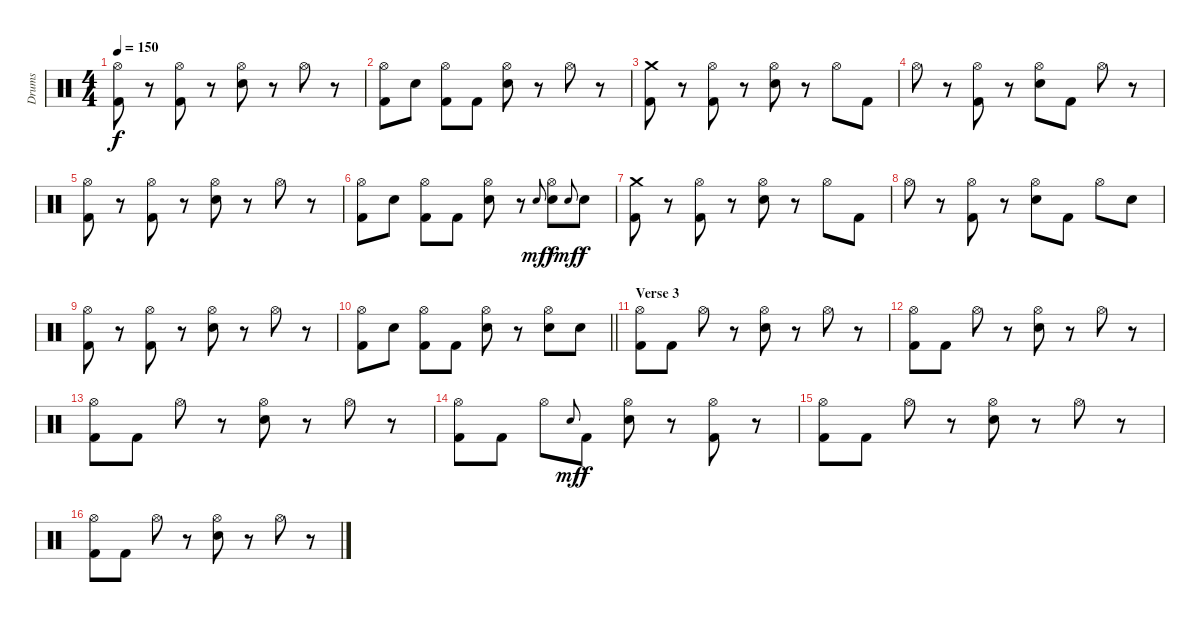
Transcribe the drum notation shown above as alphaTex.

\track ("Drums" "Drums") {instrument percussion}
\staff {score}
\articulation defaults
\ts (4 4)
\tempo 150
\clef neutral
\ks c
("Hi-Hat (open)" "Kick (hit) 2").8{dy f} r.8 ("Hi-Hat (open)" "Kick (hit) 2").8 r.8 ("Hi-Hat (open)" "Snare (hit) 2").8 r.8 "Hi-Hat (open)".8 r.8 |
("Hi-Hat (open)" "Kick (hit) 2").8 "Snare (hit) 2".8 ("Hi-Hat (open)" "Kick (hit) 2").8 "Kick (hit) 2".8 ("Hi-Hat (open)" "Snare (hit) 2").8 r.8 "Hi-Hat (open)".8 r.8 |
("Crash medium (hit)" "Kick (hit) 2").8 r.8 ("Hi-Hat (open)" "Kick (hit) 2").8 r.8 ("Hi-Hat (open)" "Snare (hit) 2").8 r.8 "Hi-Hat (open)".8 "Kick (hit) 2".8 |
"Hi-Hat (open)".8 r.8 ("Hi-Hat (open)" "Kick (hit) 2").8 r.8 ("Hi-Hat (open)" "Snare (hit) 2").8 "Kick (hit) 2".8 "Hi-Hat (open)".8 r.8 |
("Hi-Hat (open)" "Kick (hit) 2").8 r.8 ("Hi-Hat (open)" "Kick (hit) 2").8 r.8 ("Hi-Hat (open)" "Snare (hit) 2").8 r.8 "Hi-Hat (open)".8 r.8 |
("Hi-Hat (open)" "Kick (hit) 2").8 "Snare (hit) 2".8 ("Hi-Hat (open)" "Kick (hit) 2").8 "Kick (hit) 2".8 ("Hi-Hat (open)" "Snare (hit) 2").8 r.8 "Snare (hit)".8{gr onbeat dy mf} ("Hi-Hat (open)" "Snare (hit) 2").8{dy f} "Snare (hit)".8{gr onbeat dy mf} "Snare (hit) 2".8{dy f} |
("Crash medium (hit)" "Kick (hit) 2").8 r.8 ("Hi-Hat (open)" "Kick (hit) 2").8 r.8 ("Hi-Hat (open)" "Snare (hit) 2").8 r.8 "Hi-Hat (open)".8 "Kick (hit) 2".8 |
"Hi-Hat (open)".8 r.8 ("Hi-Hat (open)" "Kick (hit) 2").8 r.8 ("Hi-Hat (open)" "Snare (hit) 2").8 "Kick (hit) 2".8 "Hi-Hat (open)".8 "Snare (hit) 2".8 |
("Hi-Hat (open)" "Kick (hit) 2").8 r.8 ("Hi-Hat (open)" "Kick (hit) 2").8 r.8 ("Hi-Hat (open)" "Snare (hit) 2").8 r.8 "Hi-Hat (open)".8 r.8 |
\barLineRight lightlight
("Hi-Hat (open)" "Kick (hit) 2").8 "Snare (hit) 2".8 ("Hi-Hat (open)" "Kick (hit) 2").8 "Kick (hit) 2".8 ("Hi-Hat (open)" "Snare (hit) 2").8 r.8 ("Hi-Hat (open)" "Snare (hit) 2").8 "Snare (hit) 2".8 |
\section ("" "Verse 3")
("Hi-Hat (open)" "Kick (hit) 2").8 "Kick (hit) 2".8 "Hi-Hat (open)".8 r.8 ("Hi-Hat (open)" "Snare (hit) 2").8 r.8 "Hi-Hat (open)".8 r.8 |
("Hi-Hat (open)" "Kick (hit) 2").8 "Kick (hit) 2".8 "Hi-Hat (open)".8 r.8 ("Hi-Hat (open)" "Snare (hit) 2").8 r.8 "Hi-Hat (open)".8 r.8 |
("Hi-Hat (open)" "Kick (hit) 2").8 "Kick (hit) 2".8 "Hi-Hat (open)".8 r.8 ("Hi-Hat (open)" "Snare (hit) 2").8 r.8 "Hi-Hat (open)".8 r.8 |
("Hi-Hat (open)" "Kick (hit) 2").8 "Kick (hit) 2".8 "Hi-Hat (open)".8 "Snare (hit)".8{gr onbeat dy mf} "Kick (hit) 2".8{dy f} ("Hi-Hat (open)" "Snare (hit) 2").8 r.8 ("Hi-Hat (open)" "Kick (hit) 2").8 r.8 |
("Hi-Hat (open)" "Kick (hit) 2").8 "Kick (hit) 2".8 "Hi-Hat (open)".8 r.8 ("Hi-Hat (open)" "Snare (hit) 2").8 r.8 "Hi-Hat (open)".8 r.8 |
("Hi-Hat (open)" "Kick (hit) 2").8 "Kick (hit) 2".8 "Hi-Hat (open)".8 r.8 ("Hi-Hat (open)" "Snare (hit) 2").8 r.8 "Hi-Hat (open)".8 r.8
